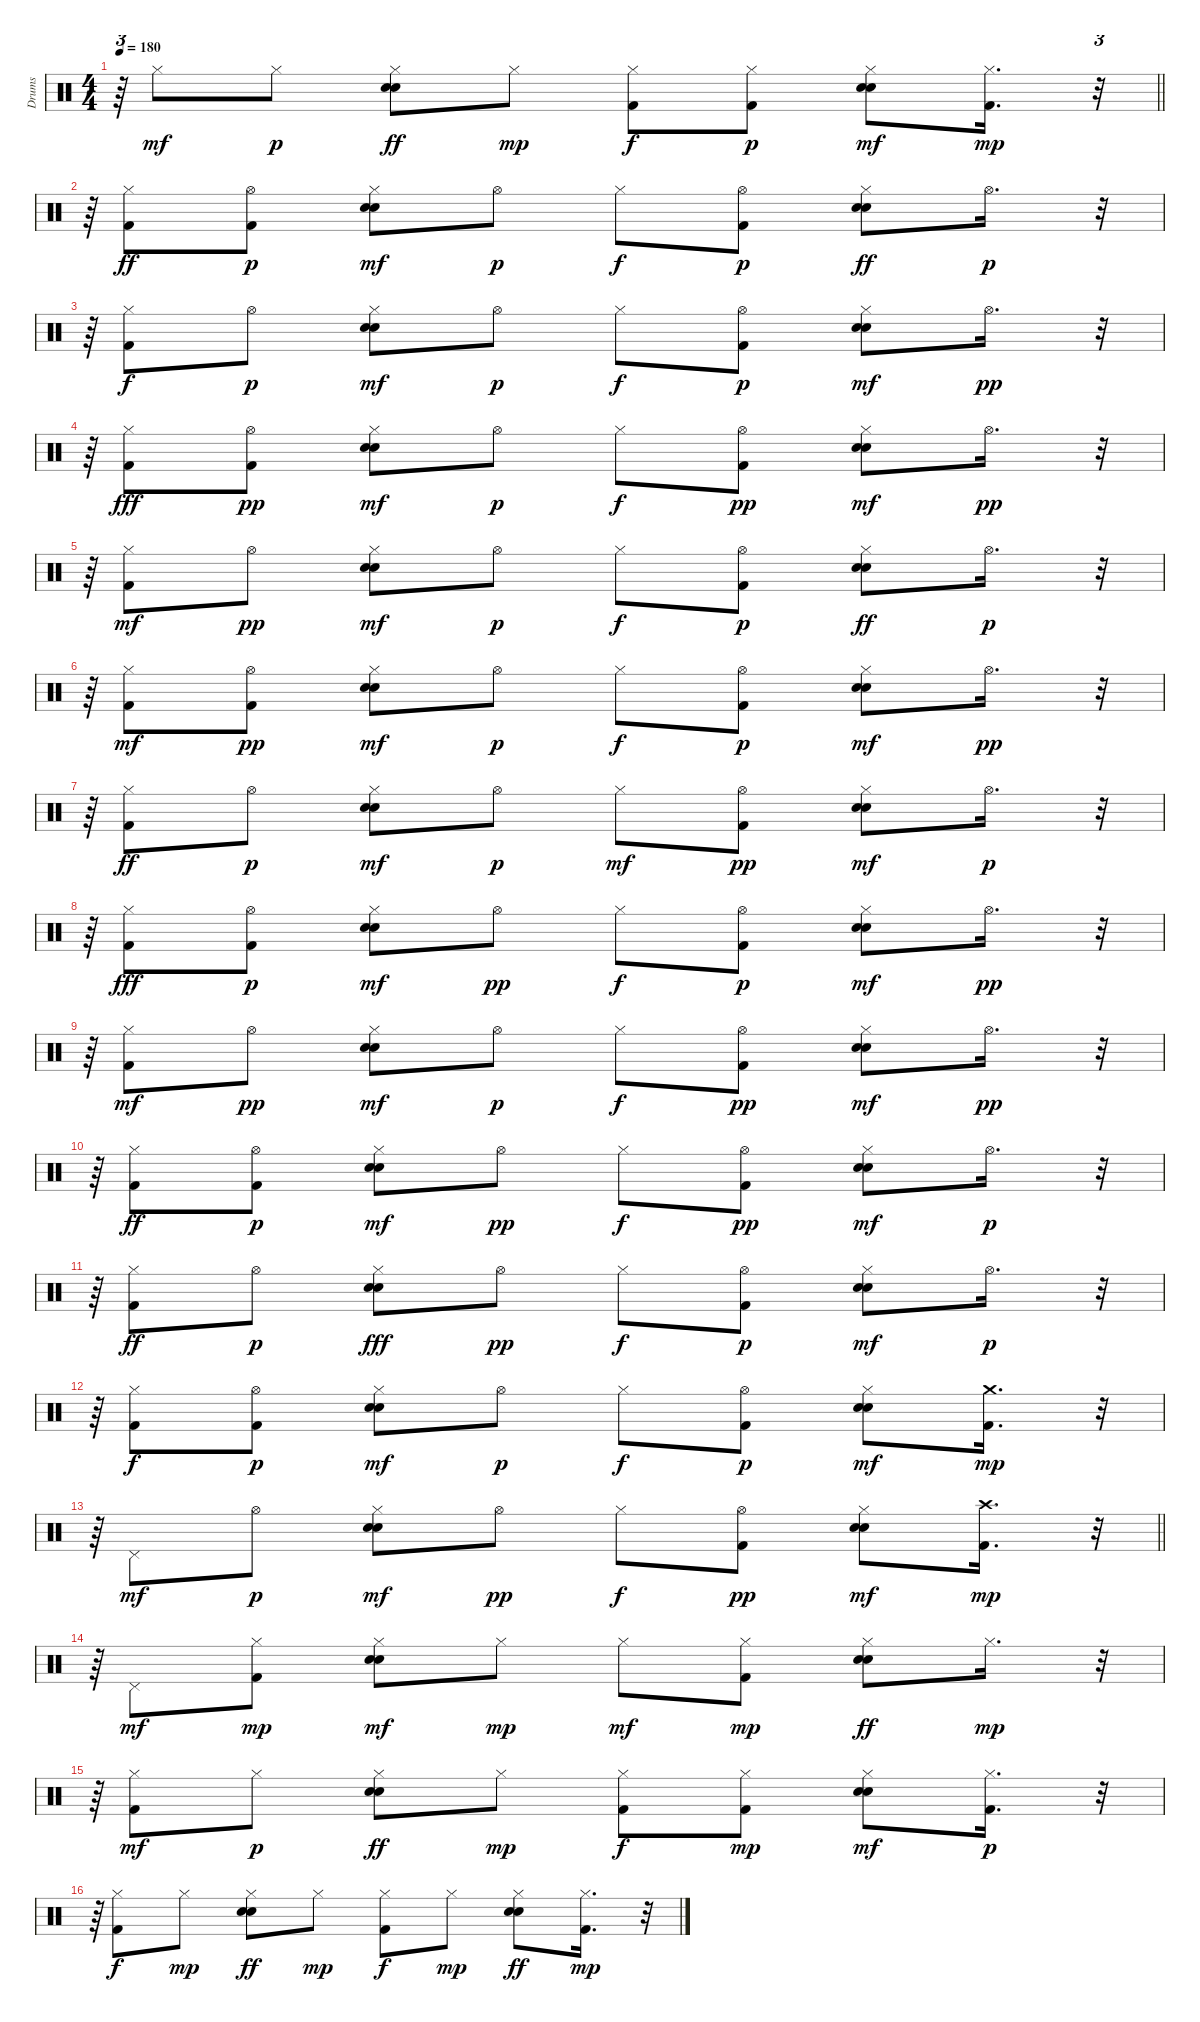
\track ("Drums" "Drums") {instrument percussion}
\staff {score}
\articulation defaults
\ts (4 4)
\tempo 180
\clef neutral
\barLineRight lightlight
\ks c
r.64{tu (3 2) dy mp} "Hi-Hat (closed)".8{dy mf} "Hi-Hat (closed)".8{dy p} ("Electric Snare (hit)" "Snare (hit) 2" "Hi-Hat (closed)").8{dy ff} "Hi-Hat (closed)".8{dy mp} ("Kick (hit) 2" "Hi-Hat (closed)").8{dy f} ("Kick (hit) 2" "Hi-Hat (closed)").8{dy p} ("Electric Snare (hit)" "Snare (hit) 2" "Hi-Hat (closed)").8{dy mf} ("Kick (hit) 2" "Hi-Hat (closed)").16{d dy mp} r.32{tu (3 2)} |
r.64{tu (3 2)} ("Kick (hit) 2" "Hi-Hat (closed)").8{dy ff} ("Kick (hit) 2" "Hi-Hat (open)").8{dy p} ("Electric Snare (hit)" "Snare (hit) 2" "Hi-Hat (closed)").8{dy mf} "Hi-Hat (open)".8{dy p} "Hi-Hat (closed)".8{dy f} ("Kick (hit) 2" "Hi-Hat (open)").8{dy p} ("Electric Snare (hit)" "Snare (hit) 2" "Hi-Hat (closed)").8{dy ff} "Hi-Hat (open)".16{d dy p} r.32{tu (3 2)} |
r.64{tu (3 2)} ("Kick (hit) 2" "Hi-Hat (closed)").8{dy f} "Hi-Hat (open)".8{dy p} ("Electric Snare (hit)" "Snare (hit) 2" "Hi-Hat (closed)").8{dy mf} "Hi-Hat (open)".8{dy p} "Hi-Hat (closed)".8{dy f} ("Kick (hit) 2" "Hi-Hat (open)").8{dy p} ("Electric Snare (hit)" "Snare (hit) 2" "Hi-Hat (closed)").8{dy mf} "Hi-Hat (open)".16{d dy pp} r.32{tu (3 2)} |
r.64{tu (3 2)} ("Kick (hit) 2" "Hi-Hat (closed)").8{dy fff} ("Kick (hit) 2" "Hi-Hat (open)").8{dy pp} ("Electric Snare (hit)" "Snare (hit) 2" "Hi-Hat (closed)").8{dy mf} "Hi-Hat (open)".8{dy p} "Hi-Hat (closed)".8{dy f} ("Kick (hit) 2" "Hi-Hat (open)").8{dy pp} ("Electric Snare (hit)" "Snare (hit) 2" "Hi-Hat (closed)").8{dy mf} "Hi-Hat (open)".16{d dy pp} r.32{tu (3 2)} |
r.64{tu (3 2)} ("Kick (hit) 2" "Hi-Hat (closed)").8{dy mf} "Hi-Hat (open)".8{dy pp} ("Electric Snare (hit)" "Snare (hit) 2" "Hi-Hat (closed)").8{dy mf} "Hi-Hat (open)".8{dy p} "Hi-Hat (closed)".8{dy f} ("Kick (hit) 2" "Hi-Hat (open)").8{dy p} ("Electric Snare (hit)" "Snare (hit) 2" "Hi-Hat (closed)").8{dy ff} "Hi-Hat (open)".16{d dy p} r.32{tu (3 2)} |
r.64{tu (3 2)} ("Kick (hit) 2" "Hi-Hat (closed)").8{dy mf} ("Kick (hit) 2" "Hi-Hat (open)").8{dy pp} ("Electric Snare (hit)" "Snare (hit) 2" "Hi-Hat (closed)").8{dy mf} "Hi-Hat (open)".8{dy p} "Hi-Hat (closed)".8{dy f} ("Kick (hit) 2" "Hi-Hat (open)").8{dy p} ("Electric Snare (hit)" "Snare (hit) 2" "Hi-Hat (closed)").8{dy mf} "Hi-Hat (open)".16{d dy pp} r.32{tu (3 2)} |
r.64{tu (3 2)} ("Kick (hit) 2" "Hi-Hat (closed)").8{dy ff} "Hi-Hat (open)".8{dy p} ("Electric Snare (hit)" "Snare (hit) 2" "Hi-Hat (closed)").8{dy mf} "Hi-Hat (open)".8{dy p} "Hi-Hat (closed)".8{dy mf} ("Kick (hit) 2" "Hi-Hat (open)").8{dy pp} ("Electric Snare (hit)" "Snare (hit) 2" "Hi-Hat (closed)").8{dy mf} "Hi-Hat (open)".16{d dy p} r.32{tu (3 2)} |
r.64{tu (3 2)} ("Kick (hit) 2" "Hi-Hat (closed)").8{dy fff} ("Kick (hit) 2" "Hi-Hat (open)").8{dy p} ("Electric Snare (hit)" "Snare (hit) 2" "Hi-Hat (closed)").8{dy mf} "Hi-Hat (open)".8{dy pp} "Hi-Hat (closed)".8{dy f} ("Kick (hit) 2" "Hi-Hat (open)").8{dy p} ("Electric Snare (hit)" "Snare (hit) 2" "Hi-Hat (closed)").8{dy mf} "Hi-Hat (open)".16{d dy pp} r.32{tu (3 2)} |
r.64{tu (3 2)} ("Kick (hit) 2" "Hi-Hat (closed)").8{dy mf} "Hi-Hat (open)".8{dy pp} ("Electric Snare (hit)" "Snare (hit) 2" "Hi-Hat (closed)").8{dy mf} "Hi-Hat (open)".8{dy p} "Hi-Hat (closed)".8{dy f} ("Kick (hit) 2" "Hi-Hat (open)").8{dy pp} ("Electric Snare (hit)" "Snare (hit) 2" "Hi-Hat (closed)").8{dy mf} "Hi-Hat (open)".16{d dy pp} r.32{tu (3 2)} |
r.64{tu (3 2)} ("Kick (hit) 2" "Hi-Hat (closed)").8{dy ff} ("Kick (hit) 2" "Hi-Hat (open)").8{dy p} ("Electric Snare (hit)" "Snare (hit) 2" "Hi-Hat (closed)").8{dy mf} "Hi-Hat (open)".8{dy pp} "Hi-Hat (closed)".8{dy f} ("Kick (hit) 2" "Hi-Hat (open)").8{dy pp} ("Electric Snare (hit)" "Snare (hit) 2" "Hi-Hat (closed)").8{dy mf} "Hi-Hat (open)".16{d dy p} r.32{tu (3 2)} |
r.64{tu (3 2)} ("Kick (hit) 2" "Hi-Hat (closed)").8{dy ff} "Hi-Hat (open)".8{dy p} ("Electric Snare (hit)" "Snare (hit) 2" "Hi-Hat (closed)").8{dy fff} "Hi-Hat (open)".8{dy pp} "Hi-Hat (closed)".8{dy f} ("Kick (hit) 2" "Hi-Hat (open)").8{dy p} ("Electric Snare (hit)" "Snare (hit) 2" "Hi-Hat (closed)").8{dy mf} "Hi-Hat (open)".16{d dy p} r.32{tu (3 2)} |
r.64{tu (3 2)} ("Kick (hit) 2" "Hi-Hat (closed)").8{dy f} ("Kick (hit) 2" "Hi-Hat (open)").8{dy p} ("Electric Snare (hit)" "Snare (hit) 2" "Hi-Hat (closed)").8{dy mf} "Hi-Hat (open)".8{dy p} "Hi-Hat (closed)".8{dy f} ("Kick (hit) 2" "Hi-Hat (open)").8{dy p} ("Electric Snare (hit)" "Snare (hit) 2" "Hi-Hat (closed)").8{dy mf} ("Kick (hit) 2" "Crash medium (hit)").16{d dy mp} r.32{tu (3 2)} |
\barLineRight lightlight
r.64{tu (3 2)} "Pedal Hi-Hat (hit)".8{dy mf} "Hi-Hat (open)".8{dy p} ("Electric Snare (hit)" "Snare (hit) 2" "Hi-Hat (closed)").8{dy mf} "Hi-Hat (open)".8{dy pp} "Hi-Hat (closed)".8{dy f} ("Kick (hit) 2" "Hi-Hat (open)").8{dy pp} ("Electric Snare (hit)" "Snare (hit) 2" "Hi-Hat (closed)").8{dy mf} ("Kick (hit) 2" "Crash high (hit)").16{d dy mp} r.32{tu (3 2)} |
r.64{tu (3 2)} "Pedal Hi-Hat (hit)".8{dy mf} ("Kick (hit) 2" "Hi-Hat (closed)").8{dy mp} ("Electric Snare (hit)" "Snare (hit) 2" "Hi-Hat (closed)").8{dy mf} "Hi-Hat (closed)".8{dy mp} "Hi-Hat (closed)".8{dy mf} ("Kick (hit) 2" "Hi-Hat (closed)").8{dy mp} ("Electric Snare (hit)" "Snare (hit) 2" "Hi-Hat (closed)").8{dy ff} "Hi-Hat (closed)".16{d dy mp} r.32{tu (3 2)} |
r.64{tu (3 2)} ("Kick (hit) 2" "Hi-Hat (closed)").8{dy mf} "Hi-Hat (closed)".8{dy p} ("Electric Snare (hit)" "Snare (hit) 2" "Hi-Hat (closed)").8{dy ff} "Hi-Hat (closed)".8{dy mp} ("Kick (hit) 2" "Hi-Hat (closed)").8{dy f} ("Kick (hit) 2" "Hi-Hat (closed)").8{dy mp} ("Electric Snare (hit)" "Snare (hit) 2" "Hi-Hat (closed)").8{dy mf} ("Kick (hit) 2" "Hi-Hat (closed)").16{d dy p} r.32{tu (3 2)} |
r.64{tu (3 2)} ("Kick (hit) 2" "Hi-Hat (closed)").8{dy f} "Hi-Hat (closed)".8{dy mp} ("Electric Snare (hit)" "Snare (hit) 2" "Hi-Hat (closed)").8{dy ff} "Hi-Hat (closed)".8{dy mp} ("Kick (hit) 2" "Hi-Hat (closed)").8{dy f} "Hi-Hat (closed)".8{dy mp} ("Electric Snare (hit)" "Snare (hit) 2" "Hi-Hat (closed)").8{dy ff} ("Kick (hit) 2" "Hi-Hat (closed)").16{d dy mp} r.32{tu (3 2)}
